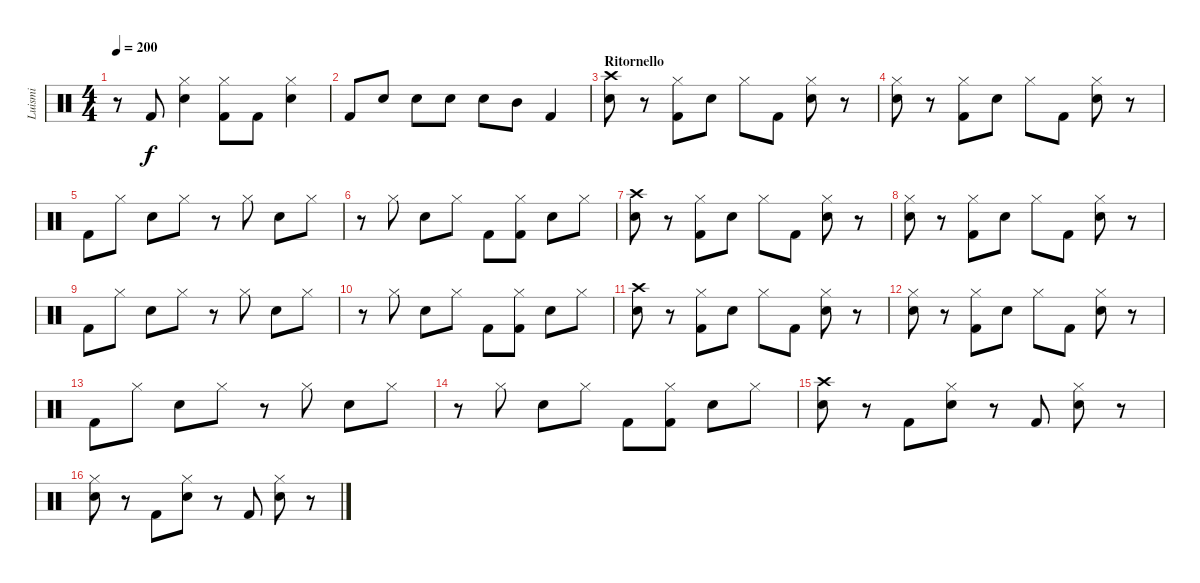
\track ("Luismi" "Luismi") {instrument percussion}
\staff {score}
\articulation defaults
\ts (4 4)
\tempo 200
\clef neutral
\ks c
r.8{dy f} "Kick (hit) 2".8 ("Hi-Hat (closed)" "Electric Snare (hit)").4 ("Hi-Hat (closed)" "Kick (hit) 2").8 "Kick (hit) 2".8 ("Hi-Hat (closed)" "Electric Snare (hit)").4 |
"Kick (hit) 2".8 "Electric Snare (hit)".8 "Electric Snare (hit)".8 "Electric Snare (hit)".8 "Electric Snare (hit)".8 "Mid Tom (hit)".8 "Kick (hit) 2".4 |
\section ("" "Ritornello")
("Crash high (hit)" "Electric Snare (hit)").8 r.8 ("Hi-Hat (closed)" "Kick (hit) 2").8 "Electric Snare (hit)".8 "Hi-Hat (closed)".8 "Kick (hit) 2".8 ("Hi-Hat (closed)" "Electric Snare (hit)").8 r.8 |
("Hi-Hat (closed)" "Electric Snare (hit)").8 r.8 ("Hi-Hat (closed)" "Kick (hit) 2").8 "Electric Snare (hit)".8 "Hi-Hat (closed)".8 "Kick (hit) 2".8 ("Hi-Hat (closed)" "Electric Snare (hit)").8 r.8 |
"Kick (hit) 2".8 "Hi-Hat (closed)".8 "Electric Snare (hit)".8 "Hi-Hat (closed)".8 r.8 "Hi-Hat (closed)".8 "Electric Snare (hit)".8 "Hi-Hat (closed)".8 |
r.8 "Hi-Hat (closed)".8 "Electric Snare (hit)".8 "Hi-Hat (closed)".8 "Kick (hit) 2".8 ("Hi-Hat (closed)" "Kick (hit) 2").8 "Electric Snare (hit)".8 "Hi-Hat (closed)".8 |
("Crash high (hit)" "Electric Snare (hit)").8 r.8 ("Hi-Hat (closed)" "Kick (hit) 2").8 "Electric Snare (hit)".8 "Hi-Hat (closed)".8 "Kick (hit) 2".8 ("Hi-Hat (closed)" "Electric Snare (hit)").8 r.8 |
("Hi-Hat (closed)" "Electric Snare (hit)").8 r.8 ("Hi-Hat (closed)" "Kick (hit) 2").8 "Electric Snare (hit)".8 "Hi-Hat (closed)".8 "Kick (hit) 2".8 ("Hi-Hat (closed)" "Electric Snare (hit)").8 r.8 |
"Kick (hit) 2".8 "Hi-Hat (closed)".8 "Electric Snare (hit)".8 "Hi-Hat (closed)".8 r.8 "Hi-Hat (closed)".8 "Electric Snare (hit)".8 "Hi-Hat (closed)".8 |
r.8 "Hi-Hat (closed)".8 "Electric Snare (hit)".8 "Hi-Hat (closed)".8 "Kick (hit) 2".8 ("Hi-Hat (closed)" "Kick (hit) 2").8 "Electric Snare (hit)".8 "Hi-Hat (closed)".8 |
("Crash high (hit)" "Electric Snare (hit)").8 r.8 ("Hi-Hat (closed)" "Kick (hit) 2").8 "Electric Snare (hit)".8 "Hi-Hat (closed)".8 "Kick (hit) 2".8 ("Hi-Hat (closed)" "Electric Snare (hit)").8 r.8 |
("Hi-Hat (closed)" "Electric Snare (hit)").8 r.8 ("Hi-Hat (closed)" "Kick (hit) 2").8 "Electric Snare (hit)".8 "Hi-Hat (closed)".8 "Kick (hit) 2".8 ("Hi-Hat (closed)" "Electric Snare (hit)").8 r.8 |
"Kick (hit) 2".8 "Hi-Hat (closed)".8 "Electric Snare (hit)".8 "Hi-Hat (closed)".8 r.8 "Hi-Hat (closed)".8 "Electric Snare (hit)".8 "Hi-Hat (closed)".8 |
r.8 "Hi-Hat (closed)".8 "Electric Snare (hit)".8 "Hi-Hat (closed)".8 "Kick (hit) 2".8 ("Hi-Hat (closed)" "Kick (hit) 2").8 "Electric Snare (hit)".8 "Hi-Hat (closed)".8 |
("Crash high (hit)" "Electric Snare (hit)").8 r.8 "Kick (hit) 2".8 ("Hi-Hat (closed)" "Electric Snare (hit)").8 r.8 "Kick (hit) 2".8 ("Hi-Hat (closed)" "Electric Snare (hit)").8 r.8 |
("Hi-Hat (closed)" "Electric Snare (hit)").8 r.8 "Kick (hit) 2".8 ("Hi-Hat (closed)" "Electric Snare (hit)").8 r.8 "Kick (hit) 2".8 ("Hi-Hat (closed)" "Electric Snare (hit)").8 r.8
